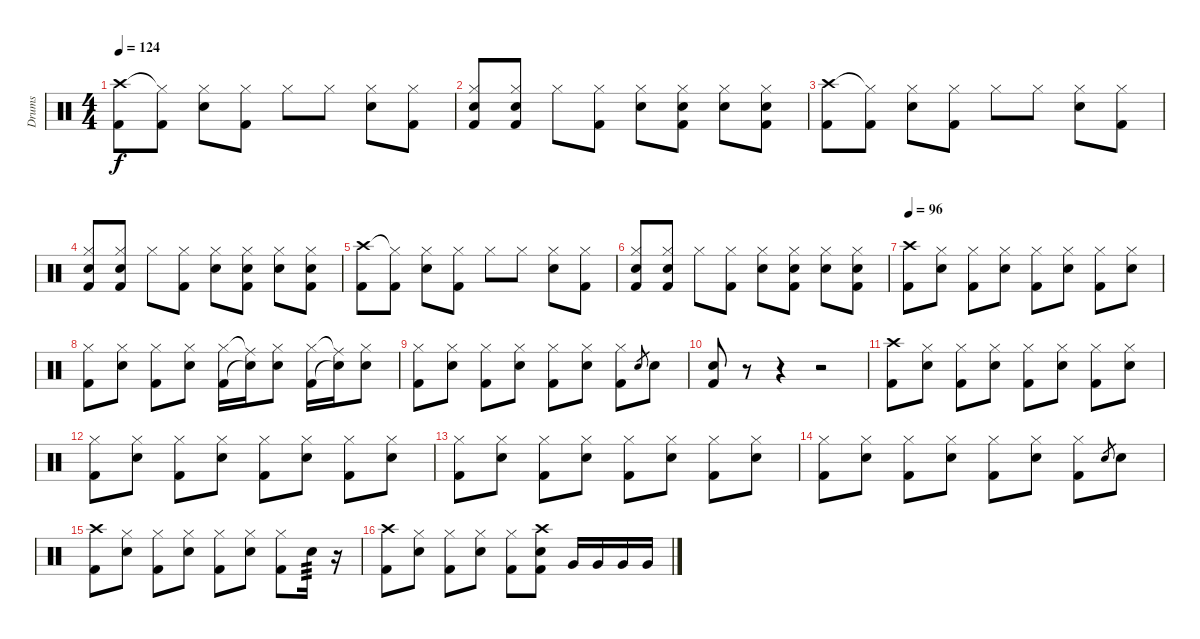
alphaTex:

\track ("Drums" "Drums") {instrument percussion}
\staff {score}
\articulation defaults
\ts (4 4)
\tempo 124
\clef neutral
\ks c
("Crash high (hit)" "Kick (hit) 2").8{dy f} ("Hi-Hat (closed)"{t} "Kick (hit) 2").8 ("Hi-Hat (closed)" "Electric Snare (hit)").8 ("Hi-Hat (closed)" "Kick (hit) 2").8 "Hi-Hat (closed)".8 "Hi-Hat (closed)".8 ("Hi-Hat (closed)" "Electric Snare (hit)").8 ("Hi-Hat (closed)" "Kick (hit) 2").8 |
("Hi-Hat (closed)" "Electric Snare (hit)" "Kick (hit) 2").8 ("Hi-Hat (closed)" "Electric Snare (hit)" "Kick (hit) 2").8 "Hi-Hat (closed)".8 ("Hi-Hat (closed)" "Kick (hit) 2").8 ("Hi-Hat (closed)" "Electric Snare (hit)").8 ("Hi-Hat (closed)" "Electric Snare (hit)" "Kick (hit) 2").8 ("Hi-Hat (closed)" "Electric Snare (hit)").8 ("Hi-Hat (closed)" "Electric Snare (hit)" "Kick (hit) 2").8 |
("Crash high (hit)" "Kick (hit) 2").8 ("Hi-Hat (closed)"{t} "Kick (hit) 2").8 ("Hi-Hat (closed)" "Electric Snare (hit)").8 ("Hi-Hat (closed)" "Kick (hit) 2").8 "Hi-Hat (closed)".8 "Hi-Hat (closed)".8 ("Hi-Hat (closed)" "Electric Snare (hit)").8 ("Hi-Hat (closed)" "Kick (hit) 2").8 |
("Hi-Hat (closed)" "Electric Snare (hit)" "Kick (hit) 2").8 ("Hi-Hat (closed)" "Electric Snare (hit)" "Kick (hit) 2").8 "Hi-Hat (closed)".8 ("Hi-Hat (closed)" "Kick (hit) 2").8 ("Hi-Hat (closed)" "Electric Snare (hit)").8 ("Hi-Hat (closed)" "Electric Snare (hit)" "Kick (hit) 2").8 ("Hi-Hat (closed)" "Electric Snare (hit)").8 ("Hi-Hat (closed)" "Electric Snare (hit)" "Kick (hit) 2").8 |
("Crash high (hit)" "Kick (hit) 2").8 ("Hi-Hat (closed)"{t} "Kick (hit) 2").8 ("Hi-Hat (closed)" "Electric Snare (hit)").8 ("Hi-Hat (closed)" "Kick (hit) 2").8 "Hi-Hat (closed)".8 "Hi-Hat (closed)".8 ("Hi-Hat (closed)" "Electric Snare (hit)").8 ("Hi-Hat (closed)" "Kick (hit) 2").8 |
("Hi-Hat (closed)" "Electric Snare (hit)" "Kick (hit) 2").8 ("Hi-Hat (closed)" "Electric Snare (hit)" "Kick (hit) 2").8 "Hi-Hat (closed)".8 ("Hi-Hat (closed)" "Kick (hit) 2").8 ("Hi-Hat (closed)" "Electric Snare (hit)").8 ("Hi-Hat (closed)" "Electric Snare (hit)" "Kick (hit) 2").8 ("Hi-Hat (closed)" "Electric Snare (hit)").8 ("Hi-Hat (closed)" "Electric Snare (hit)" "Kick (hit) 2").8 |
\tempo 96
("Crash high (hit)" "Kick (hit) 2").8 ("Hi-Hat (closed)" "Electric Snare (hit)").8 ("Hi-Hat (closed)" "Kick (hit) 2").8 ("Hi-Hat (closed)" "Electric Snare (hit)").8 ("Hi-Hat (closed)" "Kick (hit) 2").8 ("Hi-Hat (closed)" "Electric Snare (hit)").8 ("Hi-Hat (closed)" "Kick (hit) 2").8 ("Hi-Hat (closed)" "Electric Snare (hit)").8 |
("Hi-Hat (closed)" "Kick (hit) 2").8 ("Hi-Hat (closed)" "Electric Snare (hit)").8 ("Hi-Hat (closed)" "Kick (hit) 2").8 ("Hi-Hat (closed)" "Electric Snare (hit)").8 ("Hi-Hat (closed)" "Kick (hit) 2").16 ("Ride (middle)"{t} "Snare (hit)"{t}).16 ("Hi-Hat (closed)" "Electric Snare (hit)").8 ("Hi-Hat (closed)" "Kick (hit) 2").16 ("Ride (middle)"{t} "Snare (hit)"{t}).16 ("Hi-Hat (closed)" "Electric Snare (hit)").8 |
("Hi-Hat (closed)" "Kick (hit) 2").8 ("Hi-Hat (closed)" "Electric Snare (hit)").8 ("Hi-Hat (closed)" "Kick (hit) 2").8 ("Hi-Hat (closed)" "Electric Snare (hit)").8 ("Hi-Hat (closed)" "Kick (hit) 2").8 ("Hi-Hat (closed)" "Electric Snare (hit)").8 ("Hi-Hat (closed)" "Kick (hit) 2").8 "Electric Snare (hit)".8{gr} "Electric Snare (hit)".8 |
("Electric Snare (hit)" "Kick (hit) 2").8 r.8 r.4 r.2 |
("Crash high (hit)" "Kick (hit) 2").8 ("Hi-Hat (closed)" "Electric Snare (hit)").8 ("Hi-Hat (closed)" "Kick (hit) 2").8 ("Hi-Hat (closed)" "Electric Snare (hit)").8 ("Hi-Hat (closed)" "Kick (hit) 2").8 ("Hi-Hat (closed)" "Electric Snare (hit)").8 ("Hi-Hat (closed)" "Kick (hit) 2").8 ("Hi-Hat (closed)" "Electric Snare (hit)").8 |
("Hi-Hat (closed)" "Kick (hit) 2").8 ("Hi-Hat (closed)" "Electric Snare (hit)").8 ("Hi-Hat (closed)" "Kick (hit) 2").8 ("Hi-Hat (closed)" "Electric Snare (hit)").8 ("Hi-Hat (closed)" "Kick (hit) 2").8 ("Hi-Hat (closed)" "Electric Snare (hit)").8 ("Hi-Hat (closed)" "Kick (hit) 2").8 ("Hi-Hat (closed)" "Electric Snare (hit)").8 |
("Hi-Hat (closed)" "Kick (hit) 2").8 ("Hi-Hat (closed)" "Electric Snare (hit)").8 ("Hi-Hat (closed)" "Kick (hit) 2").8 ("Hi-Hat (closed)" "Electric Snare (hit)").8 ("Hi-Hat (closed)" "Kick (hit) 2").8 ("Hi-Hat (closed)" "Electric Snare (hit)").8 ("Hi-Hat (closed)" "Kick (hit) 2").8 ("Hi-Hat (closed)" "Electric Snare (hit)").8 |
("Hi-Hat (closed)" "Kick (hit) 2").8 ("Hi-Hat (closed)" "Electric Snare (hit)").8 ("Hi-Hat (closed)" "Kick (hit) 2").8 ("Hi-Hat (closed)" "Electric Snare (hit)").8 ("Hi-Hat (closed)" "Kick (hit) 2").8 ("Hi-Hat (closed)" "Electric Snare (hit)").8 ("Hi-Hat (closed)" "Kick (hit) 2").8 "Electric Snare (hit)".8{gr} "Electric Snare (hit)".8 |
("Crash high (hit)" "Kick (hit) 2").8 ("Hi-Hat (closed)" "Electric Snare (hit)").8 ("Hi-Hat (closed)" "Kick (hit) 2").8 ("Hi-Hat (closed)" "Electric Snare (hit)").8 ("Hi-Hat (closed)" "Kick (hit) 2").8 ("Hi-Hat (closed)" "Electric Snare (hit)").8 ("Hi-Hat (closed)" "Kick (hit) 2").8 "Electric Snare (hit)".16{tp 3} r.16 |
("Crash high (hit)" "Kick (hit) 2").8 ("Hi-Hat (closed)" "Electric Snare (hit)").8 ("Hi-Hat (closed)" "Kick (hit) 2").8 ("Hi-Hat (closed)" "Electric Snare (hit)").8 ("Hi-Hat (closed)" "Kick (hit) 2").8 ("Crash high (hit)" "Electric Snare (hit)" "Kick (hit) 2").8 "Very Low Tom (hit)".16 "Very Low Tom (hit)".16 "Very Low Tom (hit)".16 "Very Low Tom (hit)".16
